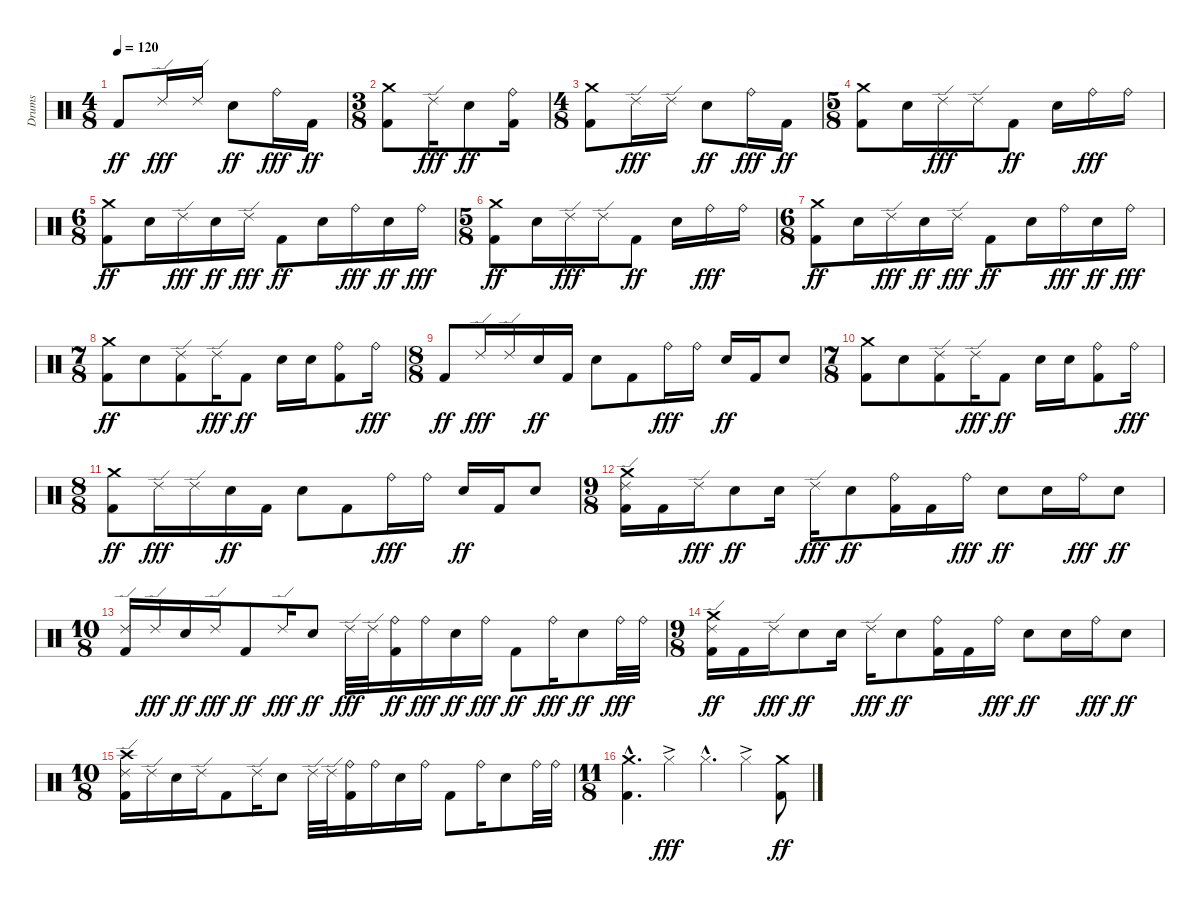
\track ("Drums" "Drums") {instrument percussion}
\staff {score}
\articulation defaults
\ts (4 8)
\tempo 120
\clef neutral
\ks c "Kick (hit) 2".8{dy ff} "Ride (edge) 2".16{dy fff} "Ride (edge) 2".16 "Snare (hit) 2".8{dy ff} "Ride (bell)".16{dy fff} "Kick (hit) 2".16{dy ff}
|
\ts (3 8)
("Crash medium (hit)" "Kick (hit) 2").8 "Ride (edge) 2".16{dy fff} "Snare (hit) 2".8{dy ff} ("Ride (bell)" "Kick (hit) 2").16 |
\ts (4 8)
("Crash medium (hit)" "Kick (hit) 2").8 "Ride (edge) 2".16{dy fff} "Ride (edge) 2".16 "Snare (hit) 2".8{dy ff} "Ride (bell)".16{dy fff} "Kick (hit) 2".16{dy ff} |
\ts (5 8)
("Crash medium (hit)" "Kick (hit) 2").8 "Snare (hit) 2".16 "Ride (edge) 2".16{dy fff} "Ride (edge) 2".16 "Kick (hit) 2".8{dy ff} "Snare (hit) 2".16 "Ride (bell)".16{dy fff} "Ride (bell)".16 |
\ts (6 8)
("Crash medium (hit)" "Kick (hit) 2").8{dy ff} "Snare (hit) 2".16 "Ride (edge) 2".16{dy fff} "Snare (hit) 2".16{dy ff} "Ride (edge) 2".16{dy fff} "Kick (hit) 2".8{dy ff} "Snare (hit) 2".16 "Ride (bell)".16{dy fff} "Snare (hit) 2".16{dy ff} "Ride (bell)".16{dy fff} |
\ts (5 8)
("Crash medium (hit)" "Kick (hit) 2").8{dy ff} "Snare (hit) 2".16 "Ride (edge) 2".16{dy fff} "Ride (edge) 2".16 "Kick (hit) 2".8{dy ff} "Snare (hit) 2".16 "Ride (bell)".16{dy fff} "Ride (bell)".16 |
\ts (6 8)
("Crash medium (hit)" "Kick (hit) 2").8{dy ff} "Snare (hit) 2".16 "Ride (edge) 2".16{dy fff} "Snare (hit) 2".16{dy ff} "Ride (edge) 2".16{dy fff} "Kick (hit) 2".8{dy ff} "Snare (hit) 2".16 "Ride (bell)".16{dy fff} "Snare (hit) 2".16{dy ff} "Ride (bell)".16{dy fff} |
\ts (7 8)
("Crash medium (hit)" "Kick (hit) 2").8{dy ff} "Snare (hit) 2".8 ("Ride (edge) 2" "Kick (hit) 2").8 "Ride (edge) 2".16{dy fff} "Kick (hit) 2".8{dy ff} "Snare (hit) 2".16 "Snare (hit) 2".16 ("Ride (bell)" "Kick (hit) 2").8 "Ride (bell)".16{dy fff} |
\ts (8 8)
"Kick (hit) 2".8{dy ff} "Ride (edge) 2".16{dy fff} "Ride (edge) 2".16 "Snare (hit) 2".16{dy ff} "Kick (hit) 2".16 "Snare (hit) 2".8 "Kick (hit) 2".8 "Ride (bell)".16{dy fff} "Ride (bell)".16 "Snare (hit) 2".16{dy ff} "Kick (hit) 2".16 "Snare (hit) 2".8 |
\ts (7 8)
("Crash medium (hit)" "Kick (hit) 2").8 "Snare (hit) 2".8 ("Ride (edge) 2" "Kick (hit) 2").8 "Ride (edge) 2".16{dy fff} "Kick (hit) 2".8{dy ff} "Snare (hit) 2".16 "Snare (hit) 2".16 ("Ride (bell)" "Kick (hit) 2").8 "Ride (bell)".16{dy fff} |
\ts (8 8)
("Crash medium (hit)" "Kick (hit) 2").8{dy ff} "Ride (edge) 2".16{dy fff} "Ride (edge) 2".16 "Snare (hit) 2".16{dy ff} "Kick (hit) 2".16 "Snare (hit) 2".8 "Kick (hit) 2".8 "Ride (bell)".16{dy fff} "Ride (bell)".16 "Snare (hit) 2".16{dy ff} "Kick (hit) 2".16 "Snare (hit) 2".8 |
\ts (9 8)
("Crash medium (hit)" "Ride (edge) 2" "Kick (hit) 2").16 "Kick (hit) 2".16 "Ride (edge) 2".16{dy fff} "Snare (hit) 2".8{dy ff} "Snare (hit) 2".16 "Ride (edge) 2".16{dy fff} "Snare (hit) 2".8{dy ff} ("Ride (bell)" "Kick (hit) 2").16 "Kick (hit) 2".16 "Ride (bell)".16{dy fff} "Snare (hit) 2".8{dy ff} "Snare (hit) 2".16 "Ride (bell)".16{dy fff} "Snare (hit) 2".8{dy ff} |
\ts (10 8)
("Ride (edge) 2" "Kick (hit) 2").16 "Ride (edge) 2".16{dy fff} "Snare (hit) 2".16{dy ff} "Ride (edge) 2".16{dy fff} "Kick (hit) 2".8{dy ff} "Ride (edge) 2".16{dy fff} "Snare (hit) 2".8{dy ff} "Ride (edge) 2".32{dy fff} "Ride (edge) 2".32 ("Ride (bell)" "Kick (hit) 2").16{dy ff} "Ride (bell)".16{dy fff} "Snare (hit) 2".16{dy ff} "Ride (bell)".16{dy fff} "Kick (hit) 2".8{dy ff} "Ride (bell)".16{dy fff} "Snare (hit) 2".8{dy ff} "Ride (bell)".32{dy fff} "Ride (bell)".32 |
\ts (9 8)
("Crash medium (hit)" "Ride (edge) 2" "Kick (hit) 2").16{dy ff} "Kick (hit) 2".16 "Ride (edge) 2".16{dy fff} "Snare (hit) 2".8{dy ff} "Snare (hit) 2".16 "Ride (edge) 2".16{dy fff} "Snare (hit) 2".8{dy ff} ("Ride (bell)" "Kick (hit) 2").16 "Kick (hit) 2".16 "Ride (bell)".16{dy fff} "Snare (hit) 2".8{dy ff} "Snare (hit) 2".16 "Ride (bell)".16{dy fff} "Snare (hit) 2".8{dy ff} |
\ts (10 8)
("Crash high (hit)" "Ride (edge) 2" "Kick (hit) 2").16 "Ride (edge) 2".16 "Snare (hit) 2".16 "Ride (edge) 2".16 "Kick (hit) 2".8 "Ride (edge) 2".16 "Snare (hit) 2".8 "Ride (edge) 2".32 "Ride (edge) 2".32 ("Ride (bell)" "Kick (hit) 2").16 "Ride (bell)".16 "Snare (hit) 2".16 "Ride (bell)".16 "Kick (hit) 2".8 "Ride (bell)".16 "Snare (hit) 2".8 "Ride (bell)".32 "Ride (bell)".32 |
\ts (11 8)
("Crash medium (hit)"{hac} "Kick (hit) 2"{hac}).4{d} "Hi-Hat (closed)"{ac}.4{dy fff} "Hi-Hat (closed)"{hac}.4{d} "Hi-Hat (closed)"{ac}.4 ("Crash medium (hit)" "Kick (hit) 2").8{dy ff}
